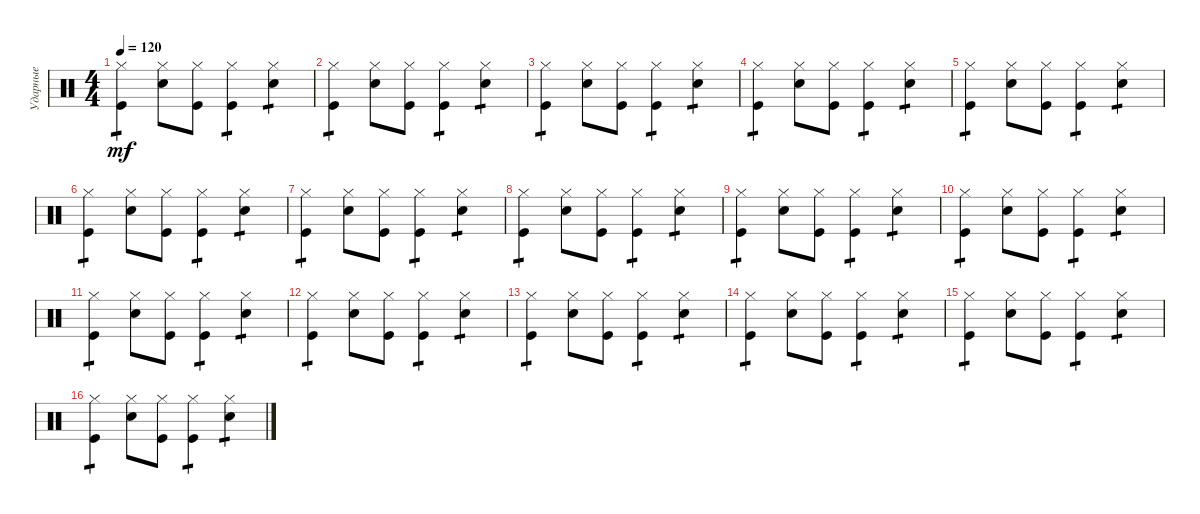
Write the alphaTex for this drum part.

\track ("Ударные" "Ударные") {instrument percussion}
\staff {score}
\articulation defaults
\ts (4 4)
\tempo 120
\clef neutral
\ks c
("Kick (hit)" "Hi-Hat (closed)").4{tp 1 dy mf} ("Snare (hit) 2" "Hi-Hat (closed)").8 ("Kick (hit)" "Hi-Hat (closed)").8 ("Kick (hit)" "Hi-Hat (closed)").4{tp 1} ("Snare (hit) 2" "Hi-Hat (closed)").4{tp 1} |
("Kick (hit)" "Hi-Hat (closed)").4{tp 1} ("Snare (hit) 2" "Hi-Hat (closed)").8 ("Kick (hit)" "Hi-Hat (closed)").8 ("Kick (hit)" "Hi-Hat (closed)").4{tp 1} ("Snare (hit) 2" "Hi-Hat (closed)").4{tp 1} |
("Kick (hit)" "Hi-Hat (closed)").4{tp 1} ("Snare (hit) 2" "Hi-Hat (closed)").8 ("Kick (hit)" "Hi-Hat (closed)").8 ("Kick (hit)" "Hi-Hat (closed)").4{tp 1} ("Snare (hit) 2" "Hi-Hat (closed)").4{tp 1} |
("Kick (hit)" "Hi-Hat (closed)").4{tp 1} ("Snare (hit) 2" "Hi-Hat (closed)").8 ("Kick (hit)" "Hi-Hat (closed)").8 ("Kick (hit)" "Hi-Hat (closed)").4{tp 1} ("Snare (hit) 2" "Hi-Hat (closed)").4{tp 1} |
("Kick (hit)" "Hi-Hat (closed)").4{tp 1} ("Snare (hit) 2" "Hi-Hat (closed)").8 ("Kick (hit)" "Hi-Hat (closed)").8 ("Kick (hit)" "Hi-Hat (closed)").4{tp 1} ("Snare (hit) 2" "Hi-Hat (closed)").4{tp 1} |
("Kick (hit)" "Hi-Hat (closed)").4{tp 1} ("Snare (hit) 2" "Hi-Hat (closed)").8 ("Kick (hit)" "Hi-Hat (closed)").8 ("Kick (hit)" "Hi-Hat (closed)").4{tp 1} ("Snare (hit) 2" "Hi-Hat (closed)").4{tp 1} |
("Kick (hit)" "Hi-Hat (closed)").4{tp 1} ("Snare (hit) 2" "Hi-Hat (closed)").8 ("Kick (hit)" "Hi-Hat (closed)").8 ("Kick (hit)" "Hi-Hat (closed)").4{tp 1} ("Snare (hit) 2" "Hi-Hat (closed)").4{tp 1} |
("Kick (hit)" "Hi-Hat (closed)").4{tp 1} ("Snare (hit) 2" "Hi-Hat (closed)").8 ("Kick (hit)" "Hi-Hat (closed)").8 ("Kick (hit)" "Hi-Hat (closed)").4{tp 1} ("Snare (hit) 2" "Hi-Hat (closed)").4{tp 1} |
("Kick (hit)" "Hi-Hat (closed)").4{tp 1} ("Snare (hit) 2" "Hi-Hat (closed)").8 ("Kick (hit)" "Hi-Hat (closed)").8 ("Kick (hit)" "Hi-Hat (closed)").4{tp 1} ("Snare (hit) 2" "Hi-Hat (closed)").4{tp 1} |
("Kick (hit)" "Hi-Hat (closed)").4{tp 1} ("Snare (hit) 2" "Hi-Hat (closed)").8 ("Kick (hit)" "Hi-Hat (closed)").8 ("Kick (hit)" "Hi-Hat (closed)").4{tp 1} ("Snare (hit) 2" "Hi-Hat (closed)").4{tp 1} |
("Kick (hit)" "Hi-Hat (closed)").4{tp 1} ("Snare (hit) 2" "Hi-Hat (closed)").8 ("Kick (hit)" "Hi-Hat (closed)").8 ("Kick (hit)" "Hi-Hat (closed)").4{tp 1} ("Snare (hit) 2" "Hi-Hat (closed)").4{tp 1} |
("Kick (hit)" "Hi-Hat (closed)").4{tp 1} ("Snare (hit) 2" "Hi-Hat (closed)").8 ("Kick (hit)" "Hi-Hat (closed)").8 ("Kick (hit)" "Hi-Hat (closed)").4{tp 1} ("Snare (hit) 2" "Hi-Hat (closed)").4{tp 1} |
("Kick (hit)" "Hi-Hat (closed)").4{tp 1} ("Snare (hit) 2" "Hi-Hat (closed)").8 ("Kick (hit)" "Hi-Hat (closed)").8 ("Kick (hit)" "Hi-Hat (closed)").4{tp 1} ("Snare (hit) 2" "Hi-Hat (closed)").4{tp 1} |
("Kick (hit)" "Hi-Hat (closed)").4{tp 1} ("Snare (hit) 2" "Hi-Hat (closed)").8 ("Kick (hit)" "Hi-Hat (closed)").8 ("Kick (hit)" "Hi-Hat (closed)").4{tp 1} ("Snare (hit) 2" "Hi-Hat (closed)").4{tp 1} |
("Kick (hit)" "Hi-Hat (closed)").4{tp 1} ("Snare (hit) 2" "Hi-Hat (closed)").8 ("Kick (hit)" "Hi-Hat (closed)").8 ("Kick (hit)" "Hi-Hat (closed)").4{tp 1} ("Snare (hit) 2" "Hi-Hat (closed)").4{tp 1} |
("Kick (hit)" "Hi-Hat (closed)").4{tp 1} ("Snare (hit) 2" "Hi-Hat (closed)").8 ("Kick (hit)" "Hi-Hat (closed)").8 ("Kick (hit)" "Hi-Hat (closed)").4{tp 1} ("Snare (hit) 2" "Hi-Hat (closed)").4{tp 1}
